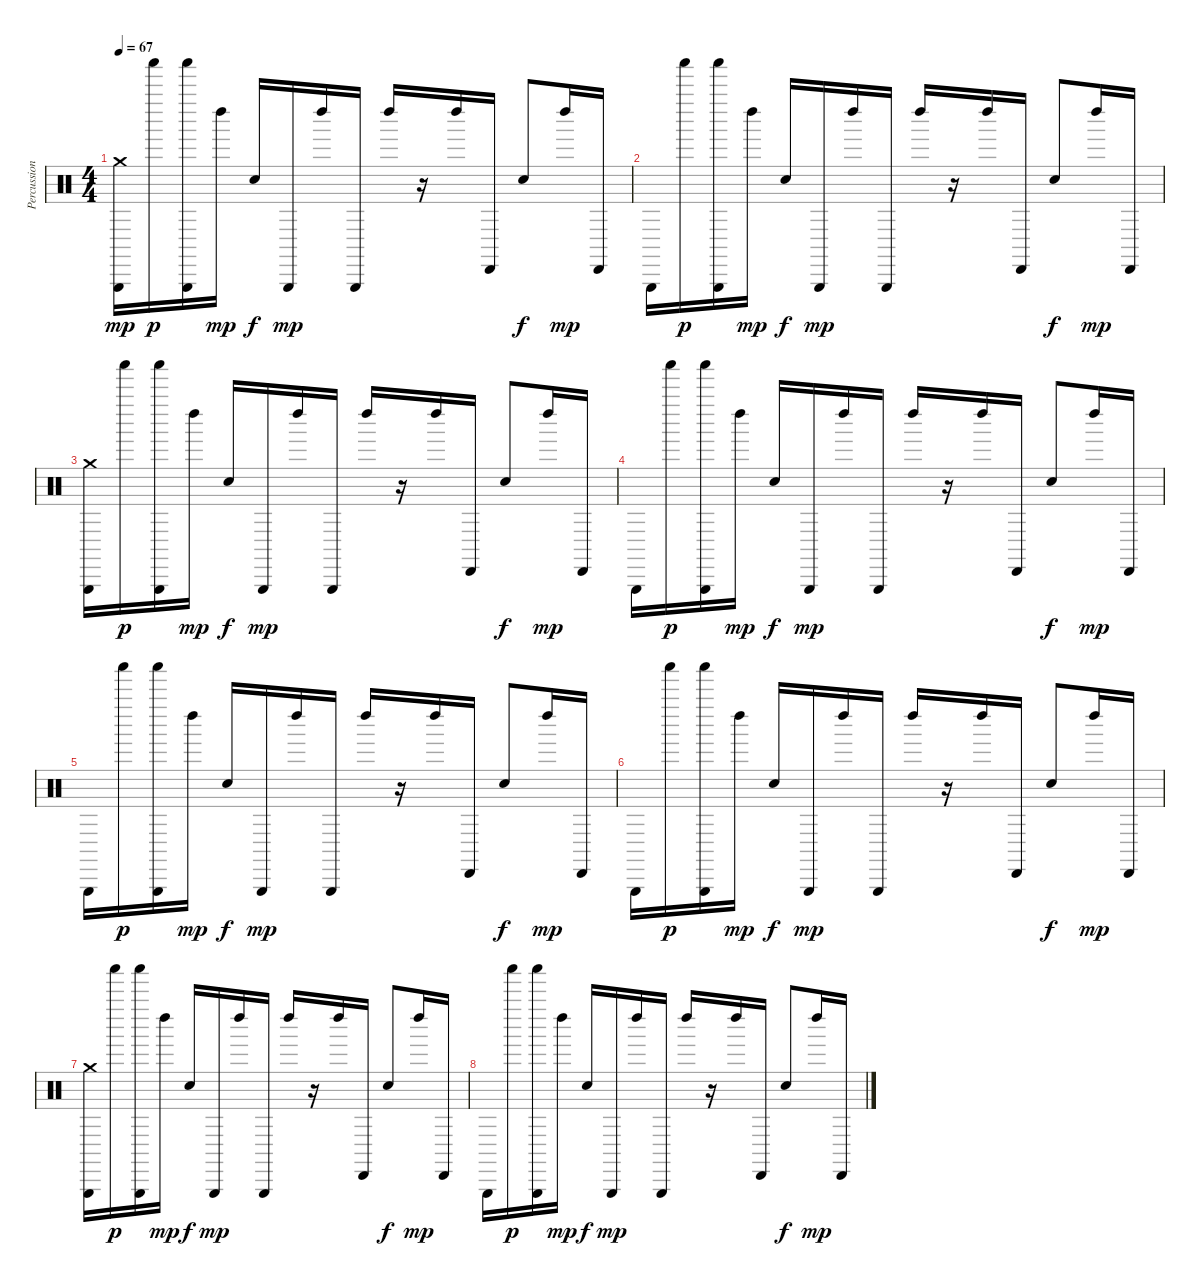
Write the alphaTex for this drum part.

\track ("Percussion" "Percussion") {instrument percussion}
\staff {score}
\articulation defaults
\ts (4 4)
\tempo 67
\clef neutral
\ks c
("Triangle (hit)" "Crash medium (hit)").16{dy mp} "Shaker (hit)".16{dy p} ("Triangle (hit)" "Shaker (hit)").16 "Left Maraca (hit)".16{dy mp} "Snare (hit) 2".16{dy f} "Triangle (hit)".16{dy mp} "Left Maraca (hit)".16 "Triangle (hit)".16 "Left Maraca (hit)".16 r.16 "Left Maraca (hit)".16 "Cabasa (hit)".16 "Snare (hit) 2".8{dy f} "Left Maraca (hit)".16{dy mp} "Cabasa (hit)".16 |
"Triangle (hit)".16 "Shaker (hit)".16{dy p} ("Triangle (hit)" "Shaker (hit)").16 "Left Maraca (hit)".16{dy mp} "Snare (hit) 2".16{dy f} "Triangle (hit)".16{dy mp} "Left Maraca (hit)".16 "Triangle (hit)".16 "Left Maraca (hit)".16 r.16 "Left Maraca (hit)".16 "Cabasa (hit)".16 "Snare (hit) 2".8{dy f} "Left Maraca (hit)".16{dy mp} "Cabasa (hit)".16 |
("Triangle (hit)" "Crash medium (hit)").16 "Shaker (hit)".16{dy p} ("Triangle (hit)" "Shaker (hit)").16 "Left Maraca (hit)".16{dy mp} "Snare (hit) 2".16{dy f} "Triangle (hit)".16{dy mp} "Left Maraca (hit)".16 "Triangle (hit)".16 "Left Maraca (hit)".16 r.16 "Left Maraca (hit)".16 "Cabasa (hit)".16 "Snare (hit) 2".8{dy f} "Left Maraca (hit)".16{dy mp} "Cabasa (hit)".16 |
"Triangle (hit)".16 "Shaker (hit)".16{dy p} ("Triangle (hit)" "Shaker (hit)").16 "Left Maraca (hit)".16{dy mp} "Snare (hit) 2".16{dy f} "Triangle (hit)".16{dy mp} "Left Maraca (hit)".16 "Triangle (hit)".16 "Left Maraca (hit)".16 r.16 "Left Maraca (hit)".16 "Cabasa (hit)".16 "Snare (hit) 2".8{dy f} "Left Maraca (hit)".16{dy mp} "Cabasa (hit)".16 |
"Triangle (hit)".16 "Shaker (hit)".16{dy p} ("Triangle (hit)" "Shaker (hit)").16 "Left Maraca (hit)".16{dy mp} "Snare (hit) 2".16{dy f} "Triangle (hit)".16{dy mp} "Left Maraca (hit)".16 "Triangle (hit)".16 "Left Maraca (hit)".16 r.16 "Left Maraca (hit)".16 "Cabasa (hit)".16 "Snare (hit) 2".8{dy f} "Left Maraca (hit)".16{dy mp} "Cabasa (hit)".16 |
"Triangle (hit)".16 "Shaker (hit)".16{dy p} ("Triangle (hit)" "Shaker (hit)").16 "Left Maraca (hit)".16{dy mp} "Snare (hit) 2".16{dy f} "Triangle (hit)".16{dy mp} "Left Maraca (hit)".16 "Triangle (hit)".16 "Left Maraca (hit)".16 r.16 "Left Maraca (hit)".16 "Cabasa (hit)".16 "Snare (hit) 2".8{dy f} "Left Maraca (hit)".16{dy mp} "Cabasa (hit)".16 |
("Triangle (hit)" "Crash medium (hit)").16 "Shaker (hit)".16{dy p} ("Triangle (hit)" "Shaker (hit)").16 "Left Maraca (hit)".16{dy mp} "Snare (hit) 2".16{dy f} "Triangle (hit)".16{dy mp} "Left Maraca (hit)".16 "Triangle (hit)".16 "Left Maraca (hit)".16 r.16 "Left Maraca (hit)".16 "Cabasa (hit)".16 "Snare (hit) 2".8{dy f} "Left Maraca (hit)".16{dy mp} "Cabasa (hit)".16 |
"Triangle (hit)".16 "Shaker (hit)".16{dy p} ("Triangle (hit)" "Shaker (hit)").16 "Left Maraca (hit)".16{dy mp} "Snare (hit) 2".16{dy f} "Triangle (hit)".16{dy mp} "Left Maraca (hit)".16 "Triangle (hit)".16 "Left Maraca (hit)".16 r.16 "Left Maraca (hit)".16 "Cabasa (hit)".16 "Snare (hit) 2".8{dy f} "Left Maraca (hit)".16{dy mp} "Cabasa (hit)".16
